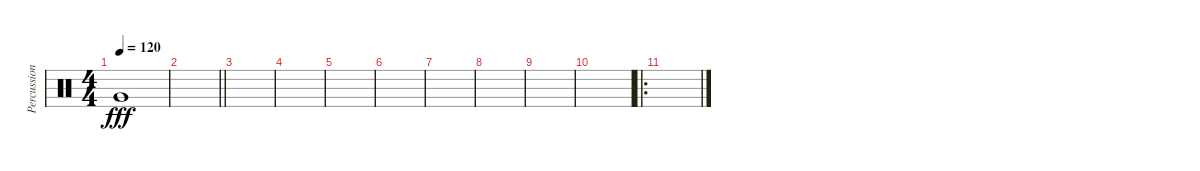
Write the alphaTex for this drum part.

\track ("Percussions" "Percussion") {instrument percussion}
\staff {score}
\articulation defaults
\ts (4 4)
\tempo 120
\clef neutral
\ks c "Very Low Tom (hit)".1{dy fff}
|
\barLineRight lightlight
|
|
|
|
|
|
|
|
|
\ro
